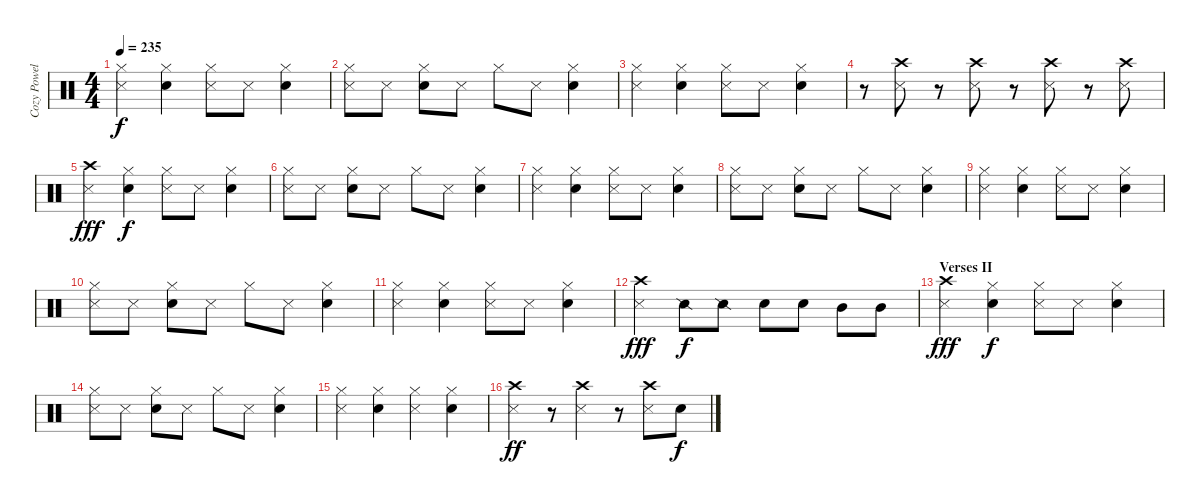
\track ("Cozy Powell" "Cozy Powel") {instrument percussion}
\staff {score}
\articulation defaults
\ts (4 4)
\tempo 235
\clef neutral
\ks c
("Metronome (hit)" "Hi-Hat (closed)").4{dy f} ("Electric Snare (hit)" "Hi-Hat (closed)").4 ("Metronome (hit)" "Hi-Hat (closed)").8 "Metronome (hit)".8 ("Hi-Hat (closed)" "Electric Snare (hit)").4 |
("Metronome (hit)" "Hi-Hat (closed)").8 "Metronome (hit)".8 ("Electric Snare (hit)" "Hi-Hat (closed)").8 "Metronome (hit)".8 "Hi-Hat (closed)".8 "Metronome (hit)".8 ("Electric Snare (hit)" "Hi-Hat (closed)").4 |
("Metronome (hit)" "Hi-Hat (closed)").4 ("Hi-Hat (closed)" "Electric Snare (hit)").4 ("Hi-Hat (closed)" "Metronome (hit)").8 "Metronome (hit)".8 ("Electric Snare (hit)" "Hi-Hat (closed)").4 |
r.8 ("Metronome (hit)" "Crash high (hit)").8 r.8 ("Crash high (hit)" "Metronome (hit)").8 r.8 ("Metronome (hit)" "Crash high (hit)").8 r.8 ("Metronome (hit)" "Crash high (hit)").8 |
("Crash high (hit)" "Metronome (hit)").4{dy fff} ("Electric Snare (hit)" "Hi-Hat (closed)").4{dy f} ("Hi-Hat (closed)" "Metronome (hit)").8 "Metronome (hit)".8 ("Electric Snare (hit)" "Hi-Hat (closed)").4 |
("Metronome (hit)" "Hi-Hat (closed)").8 "Metronome (hit)".8 ("Hi-Hat (closed)" "Electric Snare (hit)").8 "Metronome (hit)".8 "Hi-Hat (closed)".8 "Metronome (hit)".8 ("Hi-Hat (closed)" "Electric Snare (hit)").4 |
("Metronome (hit)" "Hi-Hat (closed)").4 ("Electric Snare (hit)" "Hi-Hat (closed)").4 ("Hi-Hat (closed)" "Metronome (hit)").8 "Metronome (hit)".8 ("Electric Snare (hit)" "Hi-Hat (closed)").4 |
("Metronome (hit)" "Hi-Hat (closed)").8 "Metronome (hit)".8 ("Electric Snare (hit)" "Hi-Hat (closed)").8 "Metronome (hit)".8 "Hi-Hat (closed)".8 "Metronome (hit)".8 ("Hi-Hat (closed)" "Electric Snare (hit)").4 |
("Metronome (hit)" "Hi-Hat (closed)").4 ("Electric Snare (hit)" "Hi-Hat (closed)").4 ("Hi-Hat (closed)" "Metronome (hit)").8 "Metronome (hit)".8 ("Hi-Hat (closed)" "Electric Snare (hit)").4 |
("Metronome (hit)" "Hi-Hat (closed)").8 "Metronome (hit)".8 ("Hi-Hat (closed)" "Electric Snare (hit)").8 "Metronome (hit)".8 "Hi-Hat (closed)".8 "Metronome (hit)".8 ("Electric Snare (hit)" "Hi-Hat (closed)").4 |
("Metronome (hit)" "Hi-Hat (closed)").4 ("Hi-Hat (closed)" "Electric Snare (hit)").4 ("Hi-Hat (closed)" "Metronome (hit)").8 "Metronome (hit)".8 ("Electric Snare (hit)" "Hi-Hat (closed)").4 |
("Crash high (hit)" "Metronome (hit)").4{dy fff} "Snare (side stick) 2".8{dy f} "Snare (side stick) 2".8 "Electric Snare (hit)".8 "Electric Snare (hit)".8 "Mid Tom (hit)".8 "Mid Tom (hit)".8 |
\section ("" "Verses II")
("Metronome (hit)" "Crash high (hit)").4{dy fff} ("Hi-Hat (closed)" "Electric Snare (hit)").4{dy f} ("Metronome (hit)" "Hi-Hat (closed)").8 "Metronome (hit)".8 ("Electric Snare (hit)" "Hi-Hat (closed)").4 |
("Hi-Hat (closed)" "Metronome (hit)").8 "Metronome (hit)".8 ("Hi-Hat (closed)" "Electric Snare (hit)").8 "Metronome (hit)".8 "Hi-Hat (closed)".8 "Metronome (hit)".8 ("Hi-Hat (closed)" "Electric Snare (hit)").4 |
("Metronome (hit)" "Hi-Hat (closed)").4 ("Hi-Hat (closed)" "Electric Snare (hit)").4 ("Hi-Hat (closed)" "Metronome (hit)").4 ("Hi-Hat (closed)" "Electric Snare (hit)").4 |
("Metronome (hit)" "Crash high (hit)").4{dy ff} r.8 ("Crash high (hit)" "Metronome (hit)").4 r.8 ("Crash high (hit)" "Metronome (hit)").8 "Electric Snare (hit)".8{dy f}
